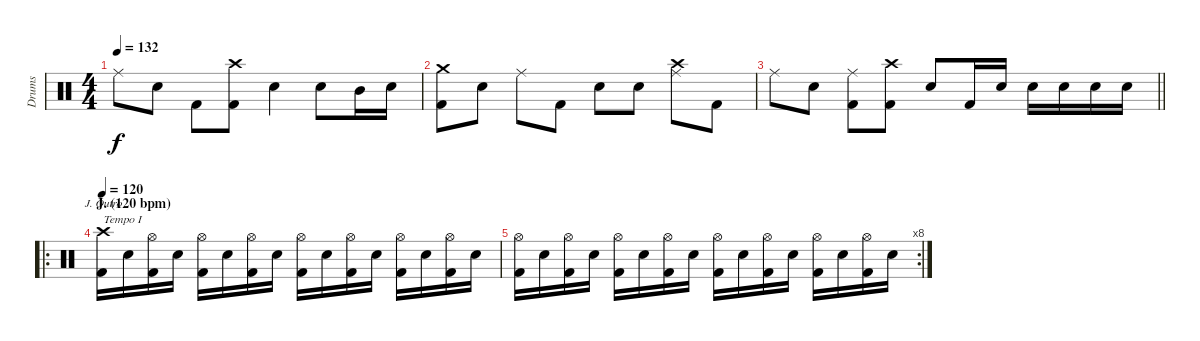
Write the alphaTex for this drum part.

\track ("Drums" "Drums") {instrument percussion}
\staff {score}
\articulation defaults
\chord ("J. Outro")
\ts (4 4)
\tempo 132
\clef neutral
\ks c "Ride (middle)".8{dy f} "Snare (hit) 2".8 "Kick (hit) 2".8
("Crash high (hit)" "Kick (hit) 2").8 "Snare (hit) 2".4 "Snare (hit) 2".8 "Mid Tom (hit)".16 "Snare (hit) 2".16 |
("Crash medium (hit)" "Kick (hit) 2").8 "Snare (hit) 2".8 "Ride (middle)".8 "Kick (hit) 2".8 "Snare (hit) 2".8 "Snare (hit) 2".8 ("Crash high (hit)" "Ride (middle)").8 "Kick (hit) 2".8 |
\barLineRight lightlight "Ride (middle)".8 "Snare (hit) 2".8
("Ride (middle)" "Kick (hit) 2").8 ("Crash high (hit)" "Kick (hit) 2").8 "Snare (hit) 2".8 "Kick (hit) 2".16 "Snare (hit) 2".16 "Snare (hit) 2".16 "Snare (hit) 2".16 "Snare (hit) 2".16 "Snare (hit) 2".16 |
\ro
\section ("" "J. (120 bpm)")
\tempo 120
("Crash high (hit)" "Kick (hit) 2").16{ch "J. Outro" txt "Tempo I"} "Snare (hit) 2".16 ("Hi-Hat (open)" "Kick (hit) 2").16 "Snare (hit) 2".16 ("Hi-Hat (open)" "Kick (hit) 2").16 "Snare (hit) 2".16 ("Hi-Hat (open)" "Kick (hit) 2").16 "Snare (hit) 2".16 ("Hi-Hat (open)" "Kick (hit) 2").16 "Snare (hit) 2".16 ("Hi-Hat (open)" "Kick (hit) 2").16 "Snare (hit) 2".16 ("Hi-Hat (open)" "Kick (hit) 2").16 "Snare (hit) 2".16 ("Hi-Hat (open)" "Kick (hit) 2").16 "Snare (hit) 2".16 |
\rc 8
("Hi-Hat (open)" "Kick (hit) 2").16 "Snare (hit) 2".16 ("Hi-Hat (open)" "Kick (hit) 2").16 "Snare (hit) 2".16 ("Hi-Hat (open)" "Kick (hit) 2").16 "Snare (hit) 2".16 ("Hi-Hat (open)" "Kick (hit) 2").16 "Snare (hit) 2".16 ("Hi-Hat (open)" "Kick (hit) 2").16 "Snare (hit) 2".16 ("Hi-Hat (open)" "Kick (hit) 2").16 "Snare (hit) 2".16 ("Hi-Hat (open)" "Kick (hit) 2").16 "Snare (hit) 2".16 ("Hi-Hat (open)" "Kick (hit) 2").16 "Snare (hit) 2".16
